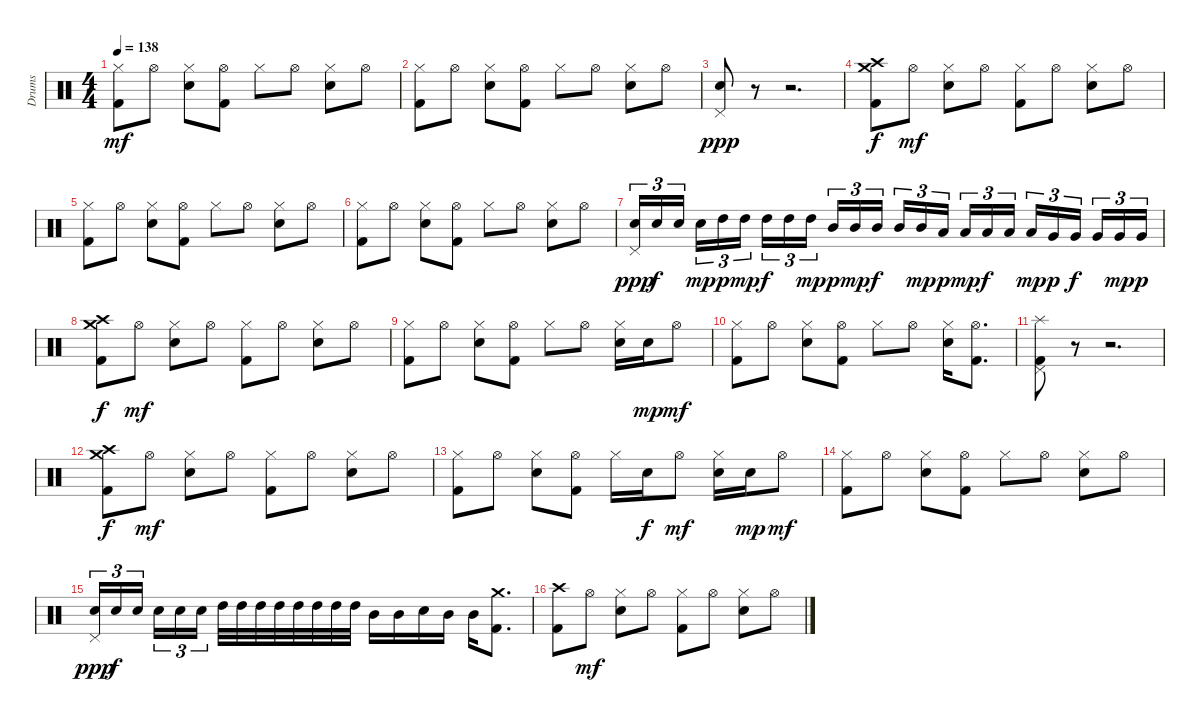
\bracketExtendMode groupsimilarinstruments
\otherSystemsTrackNameOrientation horizontal
\track ("Drumkit" "Drums") {instrument percussion}
\staff {score}
\articulation defaults
\ts (4 4)
\tempo 138
\clef neutral
\ks c
("Hi-Hat (closed)" "Kick (hit) 2").8{dy mf beam Down} "Hi-Hat (open)".8{beam Down} ("Hi-Hat (closed)" "Snare (hit) 2").8{beam Down} ("Hi-Hat (open)" "Kick (hit) 2").8{beam Down} "Hi-Hat (closed)".8{beam Down} "Hi-Hat (open)".8{beam Down} ("Hi-Hat (closed)" "Snare (hit) 2").8{beam Down} "Hi-Hat (open)".8{beam Down} |
("Hi-Hat (closed)" "Kick (hit) 2").8{beam Down} "Hi-Hat (open)".8{beam Down} ("Hi-Hat (closed)" "Snare (hit) 2").8{beam Down} ("Hi-Hat (open)" "Kick (hit) 2").8{beam Down} "Hi-Hat (closed)".8{beam Down} "Hi-Hat (open)".8{beam Down} ("Hi-Hat (closed)" "Snare (hit) 2").8{beam Down} "Hi-Hat (open)".8{beam Down} |
("Pedal Hi-Hat (hit)" "Snare (hit) 2").8{dy ppp beam Up} r.8{beam Up} r.2{d beam Up} |
("Crash high (hit)" "Crash medium (hit)" "Kick (hit) 2").8{dy f beam Down} "Hi-Hat (open)".8{dy mf beam Down} ("Hi-Hat (closed)" "Snare (hit) 2").8{beam Down} "Hi-Hat (open)".8{beam Down} ("Hi-Hat (closed)" "Kick (hit) 2").8{beam Down} "Hi-Hat (open)".8{beam Down} ("Hi-Hat (closed)" "Snare (hit) 2").8{beam Down} "Hi-Hat (open)".8{beam Down} |
("Hi-Hat (closed)" "Kick (hit) 2").8{beam Down} "Hi-Hat (open)".8{beam Down} ("Hi-Hat (closed)" "Snare (hit) 2").8{beam Down} ("Hi-Hat (open)" "Kick (hit) 2").8{beam Down} "Hi-Hat (closed)".8{beam Down} "Hi-Hat (open)".8{beam Down} ("Hi-Hat (closed)" "Snare (hit) 2").8{beam Down} "Hi-Hat (open)".8{beam Down} |
("Hi-Hat (closed)" "Kick (hit) 2").8{beam Down} "Hi-Hat (open)".8{beam Down} ("Hi-Hat (closed)" "Snare (hit) 2").8{beam Down} ("Hi-Hat (open)" "Kick (hit) 2").8{beam Down} "Hi-Hat (closed)".8{beam Down} "Hi-Hat (open)".8{beam Down} ("Hi-Hat (closed)" "Snare (hit) 2").8{beam Down} "Hi-Hat (open)".8{beam Down} |
("Pedal Hi-Hat (hit)" "Snare (hit) 2").16{tu (3 2) dy ppp beam Up} "Snare (hit) 2".16{tu (3 2) dy f beam Up} "Snare (hit) 2".16{tu (3 2) beam Up} "Snare (hit) 2".16{tu (3 2) dy mp beam Down} "High Tom (hit)".16{tu (3 2) dy p beam Down} "High Tom (hit)".16{tu (3 2) dy mp beam Down} "High Tom (hit)".16{tu (3 2) dy f beam Down} "High Tom (hit)".16{tu (3 2) beam Down} "High Tom (hit)".16{tu (3 2) dy mp beam Down} "Mid Tom (hit)".16{tu (3 2) dy p beam Up} "Mid Tom (hit)".16{tu (3 2) dy mp beam Up} "Mid Tom (hit)".16{tu (3 2) dy f beam Up} "Mid Tom (hit)".16{tu (3 2) beam Up} "Mid Tom (hit)".16{tu (3 2) dy mp beam Up} "Low Tom (hit)".16{tu (3 2) dy p beam Up} "Low Tom (hit)".16{tu (3 2) dy mp beam Up} "Low Tom (hit)".16{tu (3 2) dy f beam Up} "Low Tom (hit)".16{tu (3 2) beam Up} "Low Tom (hit)".16{tu (3 2) dy mp beam Up} "Very Low Tom (hit)".16{tu (3 2) dy p beam Up} "Very Low Tom (hit)".16{tu (3 2) dy f beam Up} "Very Low Tom (hit)".16{tu (3 2) beam Up} "Very Low Tom (hit)".16{tu (3 2) dy mp beam Up} "Very Low Tom (hit)".16{tu (3 2) dy p beam Up} |
("Crash high (hit)" "Crash medium (hit)" "Kick (hit) 2").8{dy f beam Down} "Hi-Hat (open)".8{dy mf beam Down} ("Hi-Hat (closed)" "Snare (hit) 2").8{beam Down} "Hi-Hat (open)".8{beam Down} ("Hi-Hat (closed)" "Kick (hit) 2").8{beam Down} "Hi-Hat (open)".8{beam Down} ("Hi-Hat (closed)" "Snare (hit) 2").8{beam Down} "Hi-Hat (open)".8{beam Down} |
("Hi-Hat (closed)" "Kick (hit) 2").8{beam Down} "Hi-Hat (open)".8{beam Down} ("Hi-Hat (closed)" "Snare (hit) 2").8{beam Down} ("Hi-Hat (open)" "Kick (hit) 2").8{beam Down} "Hi-Hat (closed)".8{beam Down} "Hi-Hat (open)".8{beam Down} ("Hi-Hat (closed)" "Snare (hit) 2").16{beam Down} "Snare (hit) 2".16{dy mp beam Down} "Hi-Hat (open)".8{dy mf beam Down} |
("Hi-Hat (closed)" "Kick (hit) 2").8{beam Down} "Hi-Hat (open)".8{beam Down} ("Hi-Hat (closed)" "Snare (hit) 2").8{beam Down} ("Hi-Hat (open)" "Kick (hit) 2").8{beam Down} "Hi-Hat (closed)".8{beam Down} "Hi-Hat (open)".8{beam Down} ("Hi-Hat (closed)" "Snare (hit) 2").16{beam Down} ("Hi-Hat (open)" "Kick (hit) 2").8{d beam Down} |
("Splash (hit)" "Pedal Hi-Hat (hit)" "Kick (hit) 2").8{beam Down} r.8{beam Down} r.2{d beam Down} |
("Crash high (hit)" "Crash medium (hit)" "Kick (hit) 2").8{dy f beam Down} "Hi-Hat (open)".8{dy mf beam Down} ("Hi-Hat (closed)" "Snare (hit) 2").8{beam Down} "Hi-Hat (open)".8{beam Down} ("Hi-Hat (closed)" "Kick (hit) 2").8{beam Down} "Hi-Hat (open)".8{beam Down} ("Hi-Hat (closed)" "Snare (hit) 2").8{beam Down} "Hi-Hat (open)".8{beam Down} |
("Hi-Hat (closed)" "Kick (hit) 2").8{beam Down} "Hi-Hat (open)".8{beam Down} ("Hi-Hat (closed)" "Snare (hit) 2").8{beam Down} ("Hi-Hat (open)" "Kick (hit) 2").8{beam Down} "Hi-Hat (closed)".16{beam Down} "Snare (hit) 2".16{dy f beam Down} "Hi-Hat (open)".8{dy mf beam Down} ("Hi-Hat (closed)" "Snare (hit) 2").16{beam Down} "Snare (hit) 2".16{dy mp beam Down} "Hi-Hat (open)".8{dy mf beam Down} |
("Hi-Hat (closed)" "Kick (hit) 2").8{beam Down} "Hi-Hat (open)".8{beam Down} ("Hi-Hat (closed)" "Snare (hit) 2").8{beam Down} ("Hi-Hat (open)" "Kick (hit) 2").8{beam Down} "Hi-Hat (closed)".8{beam Down} "Hi-Hat (open)".8{beam Down} ("Hi-Hat (closed)" "Snare (hit) 2").8{beam Down} "Hi-Hat (open)".8{beam Down} |
("Pedal Hi-Hat (hit)" "Snare (hit) 2").16{tu (3 2) dy ppp beam Up} "Snare (hit) 2".16{tu (3 2) dy f beam Up} "Snare (hit) 2".16{tu (3 2) beam Up} "Snare (hit) 2".16{tu (3 2) beam Down} "Snare (hit) 2".16{tu (3 2) beam Down} "Snare (hit) 2".16{tu (3 2) beam Down} "High Tom (hit)".32{beam Down} "High Tom (hit)".32{beam Down} "High Tom (hit)".32{beam Down} "High Tom (hit)".32{beam Down} "High Tom (hit)".32{beam Down} "High Tom (hit)".32{beam Down} "High Tom (hit)".32{beam Down} "High Tom (hit)".32{beam Down} "Mid Tom (hit)".16{beam Down} "Mid Tom (hit)".16{beam Down} "Snare (hit) 2".16{beam Down} "Mid Tom (hit)".16{beam Down} "Mid Tom (hit)".16{beam Down} ("Crash medium (hit)" "Kick (hit) 2").8{d beam Down} |
("Crash high (hit)" "Kick (hit) 2").8{beam Down} "Hi-Hat (open)".8{dy mf beam Down} ("Hi-Hat (closed)" "Snare (hit) 2").8{beam Down} "Hi-Hat (open)".8{beam Down} ("Hi-Hat (closed)" "Kick (hit) 2").8{beam Down} "Hi-Hat (open)".8{beam Down} ("Hi-Hat (closed)" "Snare (hit) 2").8{beam Down} "Hi-Hat (open)".8{beam Down}
